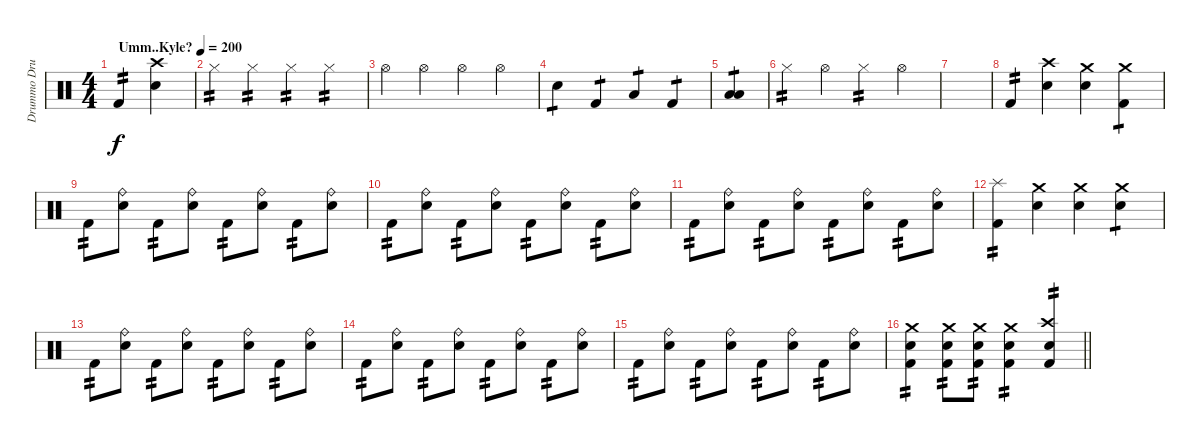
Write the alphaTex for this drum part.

\track ("Drummo Drummer" "Drummo Dru") {instrument percussion}
\staff {score}
\articulation defaults
\ts (4 4)
\tempo (200 "Umm..Kyle?")
\clef neutral
\ks c "Kick (hit) 2".4{tp 2 dy f}
("Crash high (hit)" "Electric Snare (hit)").4 |
"Hi-Hat (closed)".4{tp 2} "Hi-Hat (closed)".4{tp 2} "Hi-Hat (closed)".4{tp 2} "Hi-Hat (closed)".4{tp 2} |
"Hi-Hat (open)".4 "Hi-Hat (open)".4 "Hi-Hat (open)".4 "Hi-Hat (open)".4 |
"Electric Snare (hit)".4{tp 1} "Kick (hit) 2".4{tp 1} "Low Tom (hit)".4{tp 1} "Kick (hit) 2".4{tp 1} |
("Low Tom (hit)" "Low Floor Tom (hit)").4{tp 1} |
"Hi-Hat (closed)".4{tp 2} "Hi-Hat (open)".4 "Hi-Hat (closed)".4{tp 2} "Hi-Hat (open)".4 |
|
"Kick (hit) 2".4{tp 2} ("Crash high (hit)" "Electric Snare (hit)").4 ("Crash medium (hit)" "Electric Snare (hit)").4 ("Crash medium (hit)" "Kick (hit) 2").4{tp 1} |
"Kick (hit) 2".8{tp 2} ("Ride (bell)" "Electric Snare (hit)").8 "Kick (hit) 2".8{tp 2} ("Ride (bell)" "Electric Snare (hit)").8 "Kick (hit) 2".8{tp 2} ("Ride (bell)" "Electric Snare (hit)").8 "Kick (hit) 2".8{tp 2} ("Ride (bell)" "Electric Snare (hit)").8 |
"Kick (hit) 2".8{tp 2} ("Ride (bell)" "Electric Snare (hit)").8 "Kick (hit) 2".8{tp 2} ("Ride (bell)" "Electric Snare (hit)").8 "Kick (hit) 2".8{tp 2} ("Ride (bell)" "Electric Snare (hit)").8 "Kick (hit) 2".8{tp 2} ("Ride (bell)" "Electric Snare (hit)").8 |
"Kick (hit) 2".8{tp 2} ("Ride (bell)" "Electric Snare (hit)").8 "Kick (hit) 2".8{tp 2} ("Ride (bell)" "Electric Snare (hit)").8 "Kick (hit) 2".8{tp 2} ("Ride (bell)" "Electric Snare (hit)").8 "Kick (hit) 2".8{tp 2} ("Ride (bell)" "Electric Snare (hit)").8 |
("Splash (hit)" "Kick (hit) 2").4{tp 2} ("Crash medium (hit)" "Electric Snare (hit)").4 ("Crash medium (hit)" "Electric Snare (hit)").4 ("Crash medium (hit)" "Electric Snare (hit)").4{tp 1} |
"Kick (hit) 2".8{tp 2} ("Ride (bell)" "Electric Snare (hit)").8 "Kick (hit) 2".8{tp 2} ("Ride (bell)" "Electric Snare (hit)").8 "Kick (hit) 2".8{tp 2} ("Ride (bell)" "Electric Snare (hit)").8 "Kick (hit) 2".8{tp 2} ("Ride (bell)" "Electric Snare (hit)").8 |
"Kick (hit) 2".8{tp 2} ("Ride (bell)" "Electric Snare (hit)").8 "Kick (hit) 2".8{tp 2} ("Ride (bell)" "Electric Snare (hit)").8 "Kick (hit) 2".8{tp 2} ("Ride (bell)" "Electric Snare (hit)").8 "Kick (hit) 2".8{tp 2} ("Ride (bell)" "Electric Snare (hit)").8 |
"Kick (hit) 2".8{tp 2} ("Ride (bell)" "Electric Snare (hit)").8 "Kick (hit) 2".8{tp 2} ("Ride (bell)" "Electric Snare (hit)").8 "Kick (hit) 2".8{tp 2} ("Ride (bell)" "Electric Snare (hit)").8 "Kick (hit) 2".8{tp 2} ("Ride (bell)" "Electric Snare (hit)").8 |
\barLineRight lightlight
("Crash medium (hit)" "Electric Snare (hit)" "Kick (hit) 2").4{tp 2} ("Crash medium (hit)" "Electric Snare (hit)" "Kick (hit) 2").8{tp 2} ("Crash medium (hit)" "Electric Snare (hit)" "Kick (hit) 2").8{tp 2} ("Crash medium (hit)" "Electric Snare (hit)" "Kick (hit) 2").4{tp 2} ("Crash high (hit)" "Electric Snare (hit)" "Kick (hit) 2").4{tp 2}
